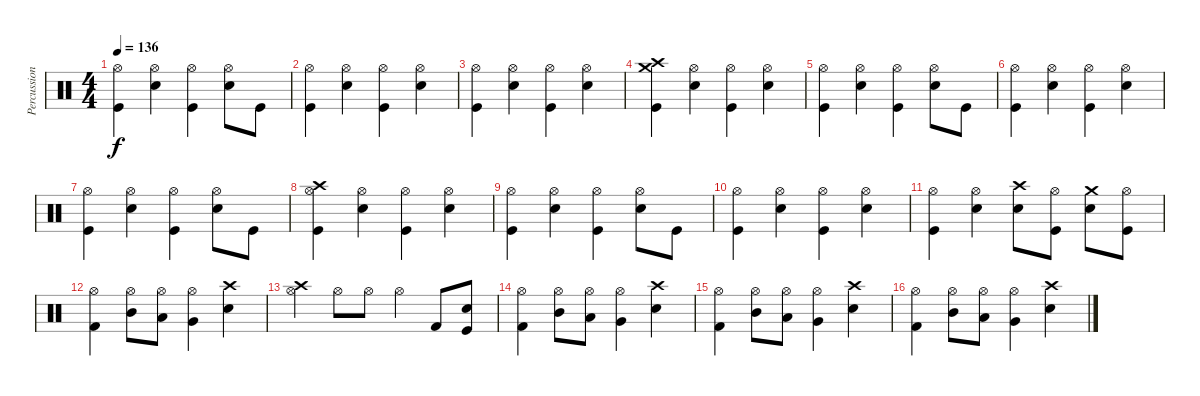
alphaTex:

\track ("Percussion" "Percussion") {instrument percussion}
\staff {score}
\articulation defaults
\ts (4 4)
\tempo 136
\clef neutral
\ks c
("Hi-Hat (open)" "Kick (hit)").4{dy f} ("Hi-Hat (open)" "Electric Snare (hit)").4 ("Hi-Hat (open)" "Kick (hit)").4 ("Hi-Hat (open)" "Electric Snare (hit)").8 "Kick (hit)".8 |
("Hi-Hat (open)" "Kick (hit)").4 ("Hi-Hat (open)" "Electric Snare (hit)").4 ("Hi-Hat (open)" "Kick (hit)").4 ("Hi-Hat (open)" "Electric Snare (hit)").4 |
("Hi-Hat (open)" "Kick (hit)").4 ("Hi-Hat (open)" "Electric Snare (hit)").4 ("Hi-Hat (open)" "Kick (hit)").4 ("Hi-Hat (open)" "Electric Snare (hit)").4 |
("Crash high (hit)" "Crash medium (hit)" "Kick (hit)").4 ("Hi-Hat (open)" "Electric Snare (hit)").4 ("Hi-Hat (open)" "Kick (hit)").4 ("Hi-Hat (open)" "Electric Snare (hit)").4 |
("Hi-Hat (open)" "Kick (hit)").4 ("Hi-Hat (open)" "Electric Snare (hit)").4 ("Hi-Hat (open)" "Kick (hit)").4 ("Hi-Hat (open)" "Electric Snare (hit)").8 "Kick (hit)".8 |
("Hi-Hat (open)" "Kick (hit)").4 ("Hi-Hat (open)" "Electric Snare (hit)").4 ("Hi-Hat (open)" "Kick (hit)").4 ("Hi-Hat (open)" "Electric Snare (hit)").4 |
("Hi-Hat (open)" "Kick (hit)").4 ("Hi-Hat (open)" "Electric Snare (hit)").4 ("Hi-Hat (open)" "Kick (hit)").4 ("Hi-Hat (open)" "Electric Snare (hit)").8 "Kick (hit)".8 |
("Crash high (hit)" "Hi-Hat (open)" "Kick (hit)").4 ("Hi-Hat (open)" "Electric Snare (hit)").4 ("Hi-Hat (open)" "Kick (hit)").4 ("Hi-Hat (open)" "Electric Snare (hit)").4 |
("Hi-Hat (open)" "Kick (hit)").4 ("Hi-Hat (open)" "Electric Snare (hit)").4 ("Hi-Hat (open)" "Kick (hit)").4 ("Hi-Hat (open)" "Electric Snare (hit)").8 "Kick (hit)".8 |
("Hi-Hat (open)" "Kick (hit)").4 ("Hi-Hat (open)" "Electric Snare (hit)").4 ("Hi-Hat (open)" "Kick (hit)").4 ("Hi-Hat (open)" "Electric Snare (hit)").4 |
("Hi-Hat (open)" "Kick (hit)").4 ("Hi-Hat (open)" "Electric Snare (hit)").4 ("Crash high (hit)" "Electric Snare (hit)").8 ("Hi-Hat (open)" "Kick (hit)").8 ("Crash medium (hit)" "Electric Snare (hit)").8 ("Hi-Hat (open)" "Kick (hit)").8 |
("Hi-Hat (open)" "Kick (hit) 2").4 ("Hi-Hat (open)" "Mid Tom (hit)").8 ("Hi-Hat (open)" "Low Tom (hit)").8 ("Hi-Hat (open)" "Very Low Tom (hit)").4 ("Crash high (hit)" "Electric Snare (hit)").4 |
("Crash high (hit)" "Hi-Hat (open)").4 "Hi-Hat (open)".8 "Hi-Hat (open)".8 "Hi-Hat (open)".4 "Kick (hit) 2".8 ("Snare (hit) 2" "Kick (hit)").8 |
("Hi-Hat (open)" "Kick (hit) 2").4 ("Hi-Hat (open)" "Mid Tom (hit)").8 ("Hi-Hat (open)" "Low Tom (hit)").8 ("Hi-Hat (open)" "Very Low Tom (hit)").4 ("Crash high (hit)" "Electric Snare (hit)").4 |
("Hi-Hat (open)" "Kick (hit) 2").4 ("Hi-Hat (open)" "Mid Tom (hit)").8 ("Hi-Hat (open)" "Low Tom (hit)").8 ("Hi-Hat (open)" "Very Low Tom (hit)").4 ("Crash high (hit)" "Electric Snare (hit)").4 |
("Hi-Hat (open)" "Kick (hit) 2").4 ("Hi-Hat (open)" "Mid Tom (hit)").8 ("Hi-Hat (open)" "Low Tom (hit)").8 ("Hi-Hat (open)" "Very Low Tom (hit)").4 ("Crash high (hit)" "Electric Snare (hit)").4
